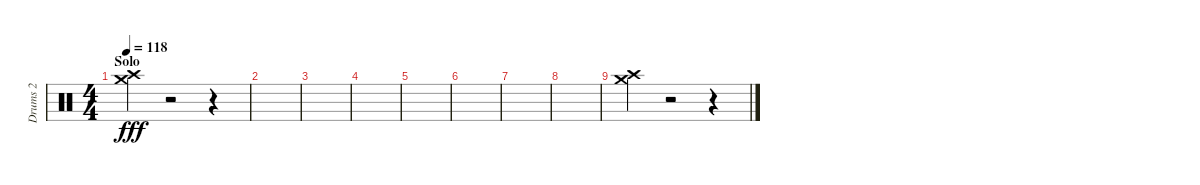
\track ("Drums 2" "Drums 2") {instrument percussion}
\staff {score}
\articulation defaults
\ts (4 4)
\section ("" "Solo")
\tempo 118
\clef neutral
\ks c
("Crash high (hit)" "Crash medium (hit)").4{dy fff volume 12 balance 8} r.2 r.4 |
|
|
|
|
|
|
|
("Crash high (hit)" "Crash medium (hit)").4 r.2 r.4
